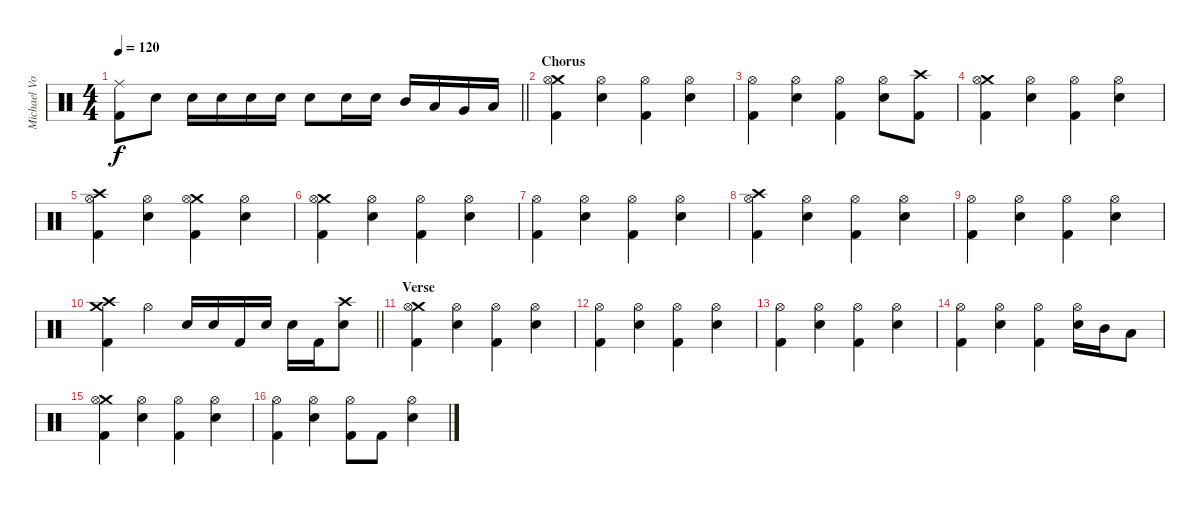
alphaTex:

\track ("Michael Von Knorring" "Michael Vo") {instrument percussion}
\staff {score}
\articulation defaults
\ts (4 4)
\tempo 120
\clef neutral
\barLineRight lightlight
\ks c
("Ride (middle)" "Kick (hit) 2").8{dy f} "Snare (hit) 2".8 "Snare (hit) 2".16 "Snare (hit) 2".16 "Snare (hit) 2".16 "Snare (hit) 2".16 "Snare (hit) 2".8 "Snare (hit) 2".16 "Snare (hit) 2".16 "Mid Tom (hit)".16 "Low Tom (hit)".16 "Very Low Tom (hit)".16 "Low Floor Tom (hit)".16 |
\section ("" "Chorus")
("Crash medium (hit)" "Hi-Hat (open)" "Kick (hit) 2").4 ("Hi-Hat (open)" "Snare (hit) 2").4 ("Hi-Hat (open)" "Kick (hit) 2").4 ("Hi-Hat (open)" "Snare (hit) 2").4 |
("Hi-Hat (open)" "Kick (hit) 2").4 ("Hi-Hat (open)" "Snare (hit) 2").4 ("Hi-Hat (open)" "Kick (hit) 2").4 ("Hi-Hat (open)" "Snare (hit) 2").8 ("Crash high (hit)" "Kick (hit) 2").8 |
("Crash medium (hit)" "Hi-Hat (open)" "Kick (hit) 2").4 ("Hi-Hat (open)" "Snare (hit) 2").4 ("Hi-Hat (open)" "Kick (hit) 2").4 ("Hi-Hat (open)" "Snare (hit) 2").4 |
("Crash high (hit)" "Hi-Hat (open)" "Kick (hit) 2").4 ("Hi-Hat (open)" "Snare (hit) 2").4 ("Crash medium (hit)" "Hi-Hat (open)" "Kick (hit) 2").4 ("Hi-Hat (open)" "Snare (hit) 2").4 |
("Crash medium (hit)" "Hi-Hat (open)" "Kick (hit) 2").4 ("Hi-Hat (open)" "Snare (hit) 2").4 ("Hi-Hat (open)" "Kick (hit) 2").4 ("Hi-Hat (open)" "Snare (hit) 2").4 |
("Hi-Hat (open)" "Kick (hit) 2").4 ("Hi-Hat (open)" "Snare (hit) 2").4 ("Hi-Hat (open)" "Kick (hit) 2").4 ("Hi-Hat (open)" "Snare (hit) 2").4 |
("Crash high (hit)" "Hi-Hat (open)" "Kick (hit) 2").4 ("Hi-Hat (open)" "Snare (hit) 2").4 ("Hi-Hat (open)" "Kick (hit) 2").4 ("Hi-Hat (open)" "Snare (hit) 2").4 |
("Hi-Hat (open)" "Kick (hit) 2").4 ("Hi-Hat (open)" "Snare (hit) 2").4 ("Hi-Hat (open)" "Kick (hit) 2").4 ("Hi-Hat (open)" "Snare (hit) 2").4 |
\barLineRight lightlight
("Crash high (hit)" "Crash medium (hit)" "Kick (hit) 2").4 "Hi-Hat (open)".4 "Snare (hit) 2".16 "Snare (hit) 2".16 "Kick (hit) 2".16 "Snare (hit) 2".16 "Snare (hit) 2".16 "Kick (hit) 2".16 ("Crash high (hit)" "Snare (hit) 2").8 |
\section ("" "Verse")
("Crash medium (hit)" "Hi-Hat (open)" "Kick (hit) 2").4 ("Hi-Hat (open)" "Snare (hit) 2").4 ("Hi-Hat (open)" "Kick (hit) 2").4 ("Hi-Hat (open)" "Snare (hit) 2").4 |
("Hi-Hat (open)" "Kick (hit) 2").4 ("Hi-Hat (open)" "Snare (hit) 2").4 ("Hi-Hat (open)" "Kick (hit) 2").4 ("Hi-Hat (open)" "Snare (hit) 2").4 |
("Hi-Hat (open)" "Kick (hit) 2").4 ("Hi-Hat (open)" "Snare (hit) 2").4 ("Hi-Hat (open)" "Kick (hit) 2").4 ("Hi-Hat (open)" "Snare (hit) 2").4 |
("Hi-Hat (open)" "Kick (hit) 2").4 ("Hi-Hat (open)" "Snare (hit) 2").4 ("Hi-Hat (open)" "Kick (hit) 2").4 ("Hi-Hat (open)" "Snare (hit) 2").16 "Mid Tom (hit)".16 "Low Tom (hit)".8 |
("Crash medium (hit)" "Hi-Hat (open)" "Kick (hit) 2").4 ("Hi-Hat (open)" "Snare (hit) 2").4 ("Hi-Hat (open)" "Kick (hit) 2").4 ("Hi-Hat (open)" "Snare (hit) 2").4 |
("Hi-Hat (open)" "Kick (hit) 2").4 ("Hi-Hat (open)" "Snare (hit) 2").4 ("Hi-Hat (open)" "Kick (hit) 2").8 "Kick (hit) 2".8 ("Hi-Hat (open)" "Snare (hit) 2").4
